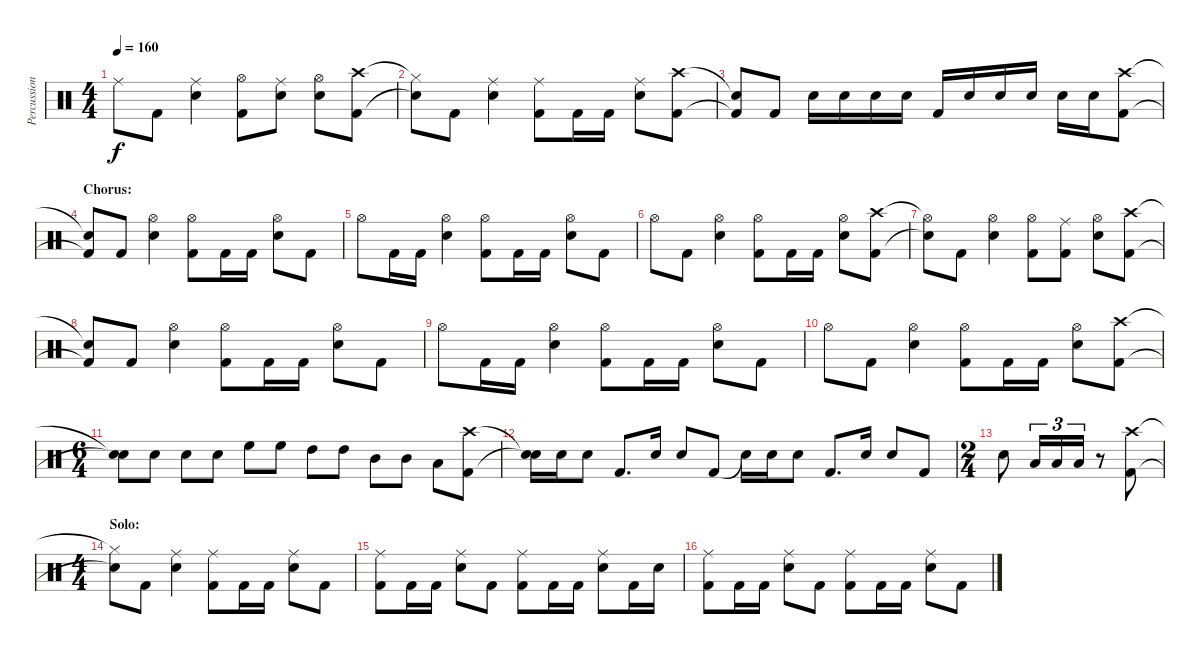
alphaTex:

\track ("Percussion" "Percussion") {instrument percussion}
\staff {score}
\articulation defaults
\ts (4 4)
\tempo 160
\clef neutral
\ks c "Ride (middle)".8{dy f} "Kick (hit) 2".8
("Ride (middle)" "Electric Snare (hit)").4 ("Hi-Hat (open)" "Kick (hit) 2").8 ("Ride (middle)" "Electric Snare (hit)").8 ("Hi-Hat (open)" "Electric Snare (hit)").8 ("Crash high (hit)" "Kick (hit) 2").8 |
("Hi-Hat (closed)"{t} "Snare (hit)"{t}).8 "Kick (hit) 2".8 ("Ride (middle)" "Electric Snare (hit)").4 ("Ride (middle)" "Kick (hit) 2").8 "Kick (hit) 2".16 "Kick (hit) 2".16 ("Ride (middle)" "Electric Snare (hit)").8 ("Crash high (hit)" "Kick (hit) 2").8 |
("Snare (hit)"{t} "Kick (hit) 2"{t}).8 "Kick (hit) 2".8 "Electric Snare (hit)".16 "Electric Snare (hit)".16 "Electric Snare (hit)".16 "Electric Snare (hit)".16 "Kick (hit) 2".16 "Electric Snare (hit)".16 "Electric Snare (hit)".16 "Electric Snare (hit)".16 "Electric Snare (hit)".16 "Electric Snare (hit)".16 ("Crash high (hit)" "Kick (hit) 2").8 |
\section ("" "Chorus:")
("Snare (hit)"{t} "Kick (hit) 2"{t}).8 "Kick (hit) 2".8 ("Hi-Hat (open)" "Electric Snare (hit)").4 ("Hi-Hat (open)" "Kick (hit) 2").8 "Kick (hit) 2".16 "Kick (hit) 2".16 ("Hi-Hat (open)" "Electric Snare (hit)").8 "Kick (hit) 2".8 |
"Hi-Hat (open)".8 "Kick (hit) 2".16 "Kick (hit) 2".16 ("Hi-Hat (open)" "Electric Snare (hit)").4 ("Hi-Hat (open)" "Kick (hit) 2").8 "Kick (hit) 2".16 "Kick (hit) 2".16 ("Hi-Hat (open)" "Electric Snare (hit)").8 "Kick (hit) 2".8 |
"Hi-Hat (open)".8 "Kick (hit) 2".8 ("Hi-Hat (open)" "Electric Snare (hit)").4 ("Hi-Hat (open)" "Kick (hit) 2").8 "Kick (hit) 2".16 "Kick (hit) 2".16 ("Hi-Hat (open)" "Electric Snare (hit)").8 ("Crash high (hit)" "Kick (hit) 2").8 |
("Hi-Hat (open)"{t} "Snare (hit)"{t}).8 "Kick (hit) 2".8 ("Hi-Hat (open)" "Electric Snare (hit)").4 ("Hi-Hat (open)" "Kick (hit) 2").8 ("Ride (middle)" "Kick (hit) 2").8 ("Hi-Hat (open)" "Electric Snare (hit)").8 ("Crash high (hit)" "Kick (hit) 2").8 |
("Snare (hit)"{t} "Kick (hit) 2"{t}).8 "Kick (hit) 2".8 ("Hi-Hat (open)" "Electric Snare (hit)").4 ("Hi-Hat (open)" "Kick (hit) 2").8 "Kick (hit) 2".16 "Kick (hit) 2".16 ("Hi-Hat (open)" "Electric Snare (hit)").8 "Kick (hit) 2".8 |
"Hi-Hat (open)".8 "Kick (hit) 2".16 "Kick (hit) 2".16 ("Hi-Hat (open)" "Electric Snare (hit)").4 ("Hi-Hat (open)" "Kick (hit) 2").8 "Kick (hit) 2".16 "Kick (hit) 2".16 ("Hi-Hat (open)" "Electric Snare (hit)").8 "Kick (hit) 2".8 |
"Hi-Hat (open)".8 "Kick (hit) 2".8 ("Hi-Hat (open)" "Electric Snare (hit)").4 ("Hi-Hat (open)" "Kick (hit) 2").8 "Kick (hit) 2".16 "Kick (hit) 2".16 ("Hi-Hat (open)" "Electric Snare (hit)").8 ("Crash high (hit)" "Kick (hit) 2").8 |
\ts (6 4)
("Snare (hit)"{t} "Snare (hit)"{t}).8 "Electric Snare (hit)".8 "Electric Snare (hit)".8 "Electric Snare (hit)".8 "High Floor Tom (hit)".8 "High Floor Tom (hit)".8 "High Tom (hit)".8 "High Tom (hit)".8 "Mid Tom (hit)".8 "Mid Tom (hit)".8 "Low Tom (hit)".8 ("Crash high (hit)" "Kick (hit) 2").8 |
("Snare (hit)"{t} "Snare (hit)"{t}).16 "Electric Snare (hit)".16 "Electric Snare (hit)".8 "Kick (hit) 2".8{d} "Electric Snare (hit)".16 "Electric Snare (hit)".8 "Kick (hit) 2".8 "Snare (hit)"{t}.16 "Electric Snare (hit)".16 "Electric Snare (hit)".8 "Kick (hit) 2".8{d} "Electric Snare (hit)".16 "Electric Snare (hit)".8 "Kick (hit) 2".8 |
\ts (2 4)
"Electric Snare (hit)".8 "Low Tom (hit)".16{tu (3 2)} "Low Tom (hit)".16{tu (3 2)} "Low Tom (hit)".16{tu (3 2)} r.8 ("Crash high (hit)" "Kick (hit) 2").8 |
\ts (4 4)
\section ("" "Solo:")
("Hi-Hat (closed)"{t} "Snare (hit)"{t}).8 "Kick (hit) 2".8 ("Ride (middle)" "Electric Snare (hit)").4 ("Ride (middle)" "Kick (hit) 2").8 "Kick (hit) 2".16 "Kick (hit) 2".16 ("Ride (middle)" "Electric Snare (hit)").8 "Kick (hit) 2".8 |
("Ride (middle)" "Kick (hit) 2").8 "Kick (hit) 2".16 "Kick (hit) 2".16 ("Ride (middle)" "Electric Snare (hit)").8 "Kick (hit) 2".8 ("Ride (middle)" "Kick (hit) 2").8 "Kick (hit) 2".16 "Kick (hit) 2".16 ("Ride (middle)" "Electric Snare (hit)").8 "Kick (hit) 2".16 "Electric Snare (hit)".16 |
("Ride (middle)" "Kick (hit) 2").8 "Kick (hit) 2".16 "Kick (hit) 2".16 ("Ride (middle)" "Electric Snare (hit)").8 "Kick (hit) 2".8 ("Ride (middle)" "Kick (hit) 2").8 "Kick (hit) 2".16 "Kick (hit) 2".16 ("Ride (middle)" "Electric Snare (hit)").8 "Kick (hit) 2".8
